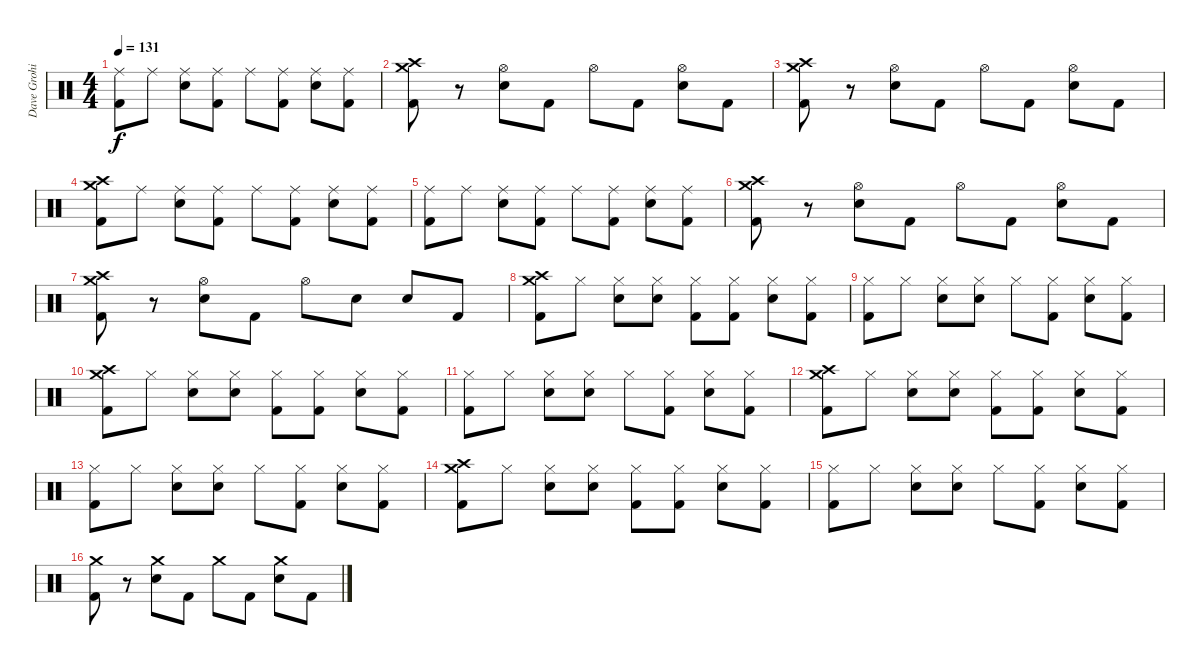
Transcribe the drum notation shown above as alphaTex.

\track ("Dave Grohi" "Dave Grohi") {instrument percussion}
\staff {score}
\articulation defaults
\ts (4 4)
\tempo 131
\clef neutral
\ks c
("Ride (middle)" "Kick (hit) 2").8{dy f} "Ride (middle)".8 ("Ride (middle)" "Snare (hit) 2").8 ("Ride (middle)" "Kick (hit) 2").8 "Ride (middle)".8 ("Ride (middle)" "Kick (hit) 2").8 ("Ride (middle)" "Snare (hit) 2").8 ("Ride (middle)" "Kick (hit) 2").8 |
("Crash high (hit)" "Crash medium (hit)" "Kick (hit) 2").8 r.8 ("Hi-Hat (open)" "Snare (hit) 2").8 "Kick (hit) 2".8 "Hi-Hat (open)".8 "Kick (hit) 2".8 ("Hi-Hat (open)" "Snare (hit) 2").8 "Kick (hit) 2".8 |
("Crash high (hit)" "Crash medium (hit)" "Kick (hit) 2").8 r.8 ("Hi-Hat (open)" "Snare (hit) 2").8 "Kick (hit) 2".8 "Hi-Hat (open)".8 "Kick (hit) 2".8 ("Hi-Hat (open)" "Snare (hit) 2").8 "Kick (hit) 2".8 |
("Crash high (hit)" "Crash medium (hit)" "Kick (hit) 2").8 "Ride (middle)".8 ("Ride (middle)" "Snare (hit) 2").8 ("Ride (middle)" "Kick (hit) 2").8 "Ride (middle)".8 ("Ride (middle)" "Kick (hit) 2").8 ("Ride (middle)" "Snare (hit) 2").8 ("Ride (middle)" "Kick (hit) 2").8 |
("Ride (middle)" "Kick (hit) 2").8 "Ride (middle)".8 ("Ride (middle)" "Snare (hit) 2").8 ("Ride (middle)" "Kick (hit) 2").8 "Ride (middle)".8 ("Ride (middle)" "Kick (hit) 2").8 ("Ride (middle)" "Snare (hit) 2").8 ("Ride (middle)" "Kick (hit) 2").8 |
("Crash high (hit)" "Crash medium (hit)" "Kick (hit) 2").8 r.8 ("Hi-Hat (open)" "Snare (hit) 2").8 "Kick (hit) 2".8 "Hi-Hat (open)".8 "Kick (hit) 2".8 ("Hi-Hat (open)" "Snare (hit) 2").8 "Kick (hit) 2".8 |
("Crash high (hit)" "Crash medium (hit)" "Kick (hit) 2").8 r.8 ("Hi-Hat (open)" "Snare (hit) 2").8 "Kick (hit) 2".8 "Hi-Hat (open)".8 "Snare (hit) 2".8 "Snare (hit) 2".8 "Kick (hit) 2".8 |
("Crash high (hit)" "Crash medium (hit)" "Kick (hit) 2").8 "Hi-Hat (closed)".8 ("Hi-Hat (closed)" "Snare (hit) 2").8 ("Hi-Hat (closed)" "Snare (hit) 2").8 ("Hi-Hat (closed)" "Kick (hit) 2").8 ("Hi-Hat (closed)" "Kick (hit) 2").8 ("Hi-Hat (closed)" "Snare (hit) 2").8 ("Hi-Hat (closed)" "Kick (hit) 2").8 |
("Hi-Hat (closed)" "Kick (hit) 2").8 "Hi-Hat (closed)".8 ("Hi-Hat (closed)" "Snare (hit) 2").8 ("Hi-Hat (closed)" "Snare (hit) 2").8 "Hi-Hat (closed)".8 ("Hi-Hat (closed)" "Kick (hit) 2").8 ("Hi-Hat (closed)" "Snare (hit) 2").8 ("Hi-Hat (closed)" "Kick (hit) 2").8 |
("Crash high (hit)" "Crash medium (hit)" "Kick (hit) 2").8 "Hi-Hat (closed)".8 ("Hi-Hat (closed)" "Snare (hit) 2").8 ("Hi-Hat (closed)" "Snare (hit) 2").8 ("Hi-Hat (closed)" "Kick (hit) 2").8 ("Hi-Hat (closed)" "Kick (hit) 2").8 ("Hi-Hat (closed)" "Snare (hit) 2").8 ("Hi-Hat (closed)" "Kick (hit) 2").8 |
("Hi-Hat (closed)" "Kick (hit) 2").8 "Hi-Hat (closed)".8 ("Hi-Hat (closed)" "Snare (hit) 2").8 ("Hi-Hat (closed)" "Snare (hit) 2").8 "Hi-Hat (closed)".8 ("Hi-Hat (closed)" "Kick (hit) 2").8 ("Hi-Hat (closed)" "Snare (hit) 2").8 ("Hi-Hat (closed)" "Kick (hit) 2").8 |
("Crash high (hit)" "Crash medium (hit)" "Kick (hit) 2").8 "Hi-Hat (closed)".8 ("Hi-Hat (closed)" "Snare (hit) 2").8 ("Hi-Hat (closed)" "Snare (hit) 2").8 ("Hi-Hat (closed)" "Kick (hit) 2").8 ("Hi-Hat (closed)" "Kick (hit) 2").8 ("Hi-Hat (closed)" "Snare (hit) 2").8 ("Hi-Hat (closed)" "Kick (hit) 2").8 |
("Hi-Hat (closed)" "Kick (hit) 2").8 "Hi-Hat (closed)".8 ("Hi-Hat (closed)" "Snare (hit) 2").8 ("Hi-Hat (closed)" "Snare (hit) 2").8 "Hi-Hat (closed)".8 ("Hi-Hat (closed)" "Kick (hit) 2").8 ("Hi-Hat (closed)" "Snare (hit) 2").8 ("Hi-Hat (closed)" "Kick (hit) 2").8 |
("Crash high (hit)" "Crash medium (hit)" "Kick (hit) 2").8 "Hi-Hat (closed)".8 ("Hi-Hat (closed)" "Snare (hit) 2").8 ("Hi-Hat (closed)" "Snare (hit) 2").8 ("Hi-Hat (closed)" "Kick (hit) 2").8 ("Hi-Hat (closed)" "Kick (hit) 2").8 ("Hi-Hat (closed)" "Snare (hit) 2").8 ("Hi-Hat (closed)" "Kick (hit) 2").8 |
("Hi-Hat (closed)" "Kick (hit) 2").8 "Hi-Hat (closed)".8 ("Hi-Hat (closed)" "Snare (hit) 2").8 ("Hi-Hat (closed)" "Snare (hit) 2").8 "Hi-Hat (closed)".8 ("Hi-Hat (closed)" "Kick (hit) 2").8 ("Hi-Hat (closed)" "Snare (hit) 2").8 ("Hi-Hat (closed)" "Kick (hit) 2").8 |
("Crash medium (hit)" "Kick (hit) 2").8 r.8 ("Crash medium (hit)" "Snare (hit) 2").8 "Kick (hit) 2".8 "Crash medium (hit)".8 "Kick (hit) 2".8 ("Crash medium (hit)" "Snare (hit) 2").8 "Kick (hit) 2".8
